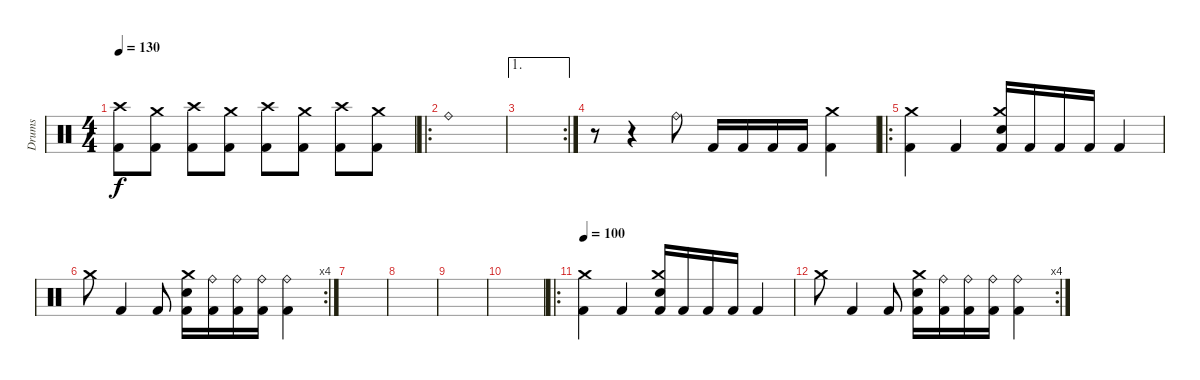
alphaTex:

\track ("Drums" "Drums") {instrument percussion}
\staff {score}
\articulation defaults
\ts (4 4)
\tempo 130
\clef neutral
\ks c
("Crash high (hit)" "Kick (hit) 2").8{dy f} ("Crash medium (hit)" "Kick (hit) 2").8 ("Crash high (hit)" "Kick (hit) 2").8 ("Crash medium (hit)" "Kick (hit) 2").8 ("Crash high (hit)" "Kick (hit) 2").8 ("Crash medium (hit)" "Kick (hit) 2").8 ("Crash high (hit)" "Kick (hit) 2").8 ("Crash medium (hit)" "Kick (hit) 2").8 |
\ro "Ride (bell)".1
|
\ae 1
\rc 2
|
r.8 r.4 "Ride (bell)".8 "Kick (hit) 2".16 "Kick (hit) 2".16 "Kick (hit) 2".16 "Kick (hit) 2".16 ("Crash medium (hit)" "Kick (hit) 2").4 |
\ro
("Crash medium (hit)" "Kick (hit) 2").4 "Kick (hit) 2".4 ("Crash medium (hit)" "Electric Snare (hit)" "Kick (hit) 2").16 "Kick (hit) 2".16 "Kick (hit) 2".16 "Kick (hit) 2".16 "Kick (hit) 2".4 |
\rc 4 "Crash medium (hit)".8 "Kick (hit) 2".4 "Kick (hit) 2".8
("Crash medium (hit)" "Electric Snare (hit)" "Kick (hit) 2").16 ("Ride (bell)" "Kick (hit) 2").16 ("Ride (bell)" "Kick (hit) 2").16 ("Ride (bell)" "Kick (hit) 2").16 ("Ride (bell)" "Kick (hit) 2").4 |
|
|
|
|
\ro
\tempo 100
("Crash medium (hit)" "Kick (hit) 2").4 "Kick (hit) 2".4 ("Crash medium (hit)" "Electric Snare (hit)" "Kick (hit) 2").16 "Kick (hit) 2".16 "Kick (hit) 2".16 "Kick (hit) 2".16 "Kick (hit) 2".4 |
\rc 4 "Crash medium (hit)".8 "Kick (hit) 2".4 "Kick (hit) 2".8
("Crash medium (hit)" "Electric Snare (hit)" "Kick (hit) 2").16 ("Ride (bell)" "Kick (hit) 2").16 ("Ride (bell)" "Kick (hit) 2").16 ("Ride (bell)" "Kick (hit) 2").16 ("Ride (bell)" "Kick (hit) 2").4
